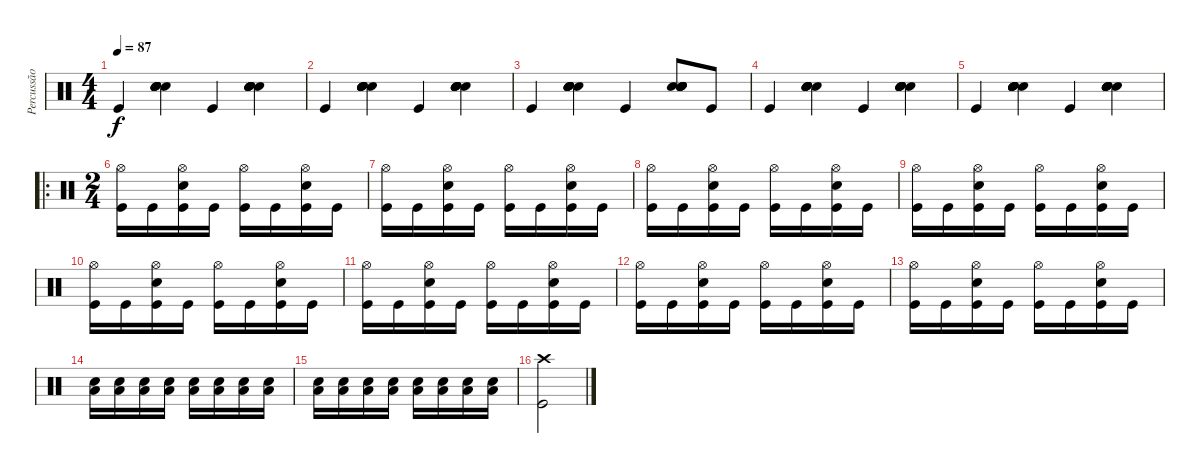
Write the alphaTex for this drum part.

\track ("Percussão" "Percussão") {instrument percussion}
\staff {score}
\articulation defaults
\ts (4 4)
\tempo 87
\clef neutral
\ks c "Kick (hit)".4{dy f}
("Snare (hit) 2" "Snare (hit) 2" "Snare (hit) 2" "Snare (hit) 2" "Snare (hit) 2" "Snare (hit) 2").4 "Kick (hit)".4 ("Snare (hit) 2" "Snare (hit) 2" "Snare (hit) 2" "Snare (hit) 2" "Snare (hit) 2" "Snare (hit) 2").4 |
"Kick (hit)".4 ("Snare (hit) 2" "Snare (hit) 2" "Snare (hit) 2" "Snare (hit) 2" "Snare (hit) 2" "Snare (hit) 2").4 "Kick (hit)".4 ("Snare (hit) 2" "Snare (hit) 2" "Snare (hit) 2" "Snare (hit) 2" "Snare (hit) 2" "Snare (hit) 2").4 |
"Kick (hit)".4 ("Snare (hit) 2" "Snare (hit) 2" "Snare (hit) 2" "Snare (hit) 2" "Snare (hit) 2" "Snare (hit) 2").4 "Kick (hit)".4 ("Snare (hit) 2" "Snare (hit) 2" "Snare (hit) 2" "Snare (hit) 2" "Snare (hit) 2" "Snare (hit) 2").8 "Kick (hit)".8 |
"Kick (hit)".4 ("Snare (hit) 2" "Snare (hit) 2" "Snare (hit) 2" "Snare (hit) 2" "Snare (hit) 2" "Snare (hit) 2").4 "Kick (hit)".4 ("Snare (hit) 2" "Snare (hit) 2" "Snare (hit) 2" "Snare (hit) 2" "Snare (hit) 2" "Snare (hit) 2").4 |
"Kick (hit)".4 ("Snare (hit) 2" "Snare (hit) 2" "Snare (hit) 2" "Snare (hit) 2" "Snare (hit) 2" "Snare (hit) 2").4 "Kick (hit)".4 ("Snare (hit) 2" "Snare (hit) 2" "Snare (hit) 2" "Snare (hit) 2" "Snare (hit) 2" "Snare (hit) 2").4 |
\ro
\ts (2 4)
("Hi-Hat (open)" "Kick (hit)").16 "Kick (hit)".16 ("Hi-Hat (open)" "Snare (hit) 2" "Kick (hit)").16 "Kick (hit)".16 ("Hi-Hat (open)" "Kick (hit)").16 "Kick (hit)".16 ("Hi-Hat (open)" "Snare (hit) 2" "Kick (hit)").16 "Kick (hit)".16 |
("Hi-Hat (open)" "Kick (hit)").16 "Kick (hit)".16 ("Hi-Hat (open)" "Snare (hit) 2" "Kick (hit)").16 "Kick (hit)".16 ("Hi-Hat (open)" "Kick (hit)").16 "Kick (hit)".16 ("Hi-Hat (open)" "Snare (hit) 2" "Kick (hit)").16 "Kick (hit)".16 |
("Hi-Hat (open)" "Kick (hit)").16 "Kick (hit)".16 ("Hi-Hat (open)" "Snare (hit) 2" "Kick (hit)").16 "Kick (hit)".16 ("Hi-Hat (open)" "Kick (hit)").16 "Kick (hit)".16 ("Hi-Hat (open)" "Snare (hit) 2" "Kick (hit)").16 "Kick (hit)".16 |
("Hi-Hat (open)" "Kick (hit)").16 "Kick (hit)".16 ("Hi-Hat (open)" "Snare (hit) 2" "Kick (hit)").16 "Kick (hit)".16 ("Hi-Hat (open)" "Kick (hit)").16 "Kick (hit)".16 ("Hi-Hat (open)" "Snare (hit) 2" "Kick (hit)").16 "Kick (hit)".16 |
("Hi-Hat (open)" "Kick (hit)").16 "Kick (hit)".16 ("Hi-Hat (open)" "Snare (hit) 2" "Kick (hit)").16 "Kick (hit)".16 ("Hi-Hat (open)" "Kick (hit)").16 "Kick (hit)".16 ("Hi-Hat (open)" "Snare (hit) 2" "Kick (hit)").16 "Kick (hit)".16 |
("Hi-Hat (open)" "Kick (hit)").16 "Kick (hit)".16 ("Hi-Hat (open)" "Snare (hit) 2" "Kick (hit)").16 "Kick (hit)".16 ("Hi-Hat (open)" "Kick (hit)").16 "Kick (hit)".16 ("Hi-Hat (open)" "Snare (hit) 2" "Kick (hit)").16 "Kick (hit)".16 |
("Hi-Hat (open)" "Kick (hit)").16 "Kick (hit)".16 ("Hi-Hat (open)" "Snare (hit) 2" "Kick (hit)").16 "Kick (hit)".16 ("Hi-Hat (open)" "Kick (hit)").16 "Kick (hit)".16 ("Hi-Hat (open)" "Snare (hit) 2" "Kick (hit)").16 "Kick (hit)".16 |
("Hi-Hat (open)" "Kick (hit)").16 "Kick (hit)".16 ("Hi-Hat (open)" "Snare (hit) 2" "Kick (hit)").16 "Kick (hit)".16 ("Hi-Hat (open)" "Kick (hit)").16 "Kick (hit)".16 ("Hi-Hat (open)" "Snare (hit) 2" "Kick (hit)").16 "Kick (hit)".16 |
("Snare (hit) 2" "Low Floor Tom (hit)").16 ("Snare (hit) 2" "Low Floor Tom (hit)").16 ("Snare (hit) 2" "Low Floor Tom (hit)").16 ("Snare (hit) 2" "Low Floor Tom (hit)").16 ("Snare (hit) 2" "Low Floor Tom (hit)").16 ("Snare (hit) 2" "Low Floor Tom (hit)").16 ("Snare (hit) 2" "Low Floor Tom (hit)").16 ("Snare (hit) 2" "Low Floor Tom (hit)").16 |
("Snare (hit) 2" "Low Floor Tom (hit)").16 ("Snare (hit) 2" "Low Floor Tom (hit)").16 ("Snare (hit) 2" "Low Floor Tom (hit)").16 ("Snare (hit) 2" "Low Floor Tom (hit)").16 ("Snare (hit) 2" "Low Floor Tom (hit)").16 ("Snare (hit) 2" "Low Floor Tom (hit)").16 ("Snare (hit) 2" "Low Floor Tom (hit)").16 ("Snare (hit) 2" "Low Floor Tom (hit)").16 |
("Crash high (hit)" "Kick (hit)").2
